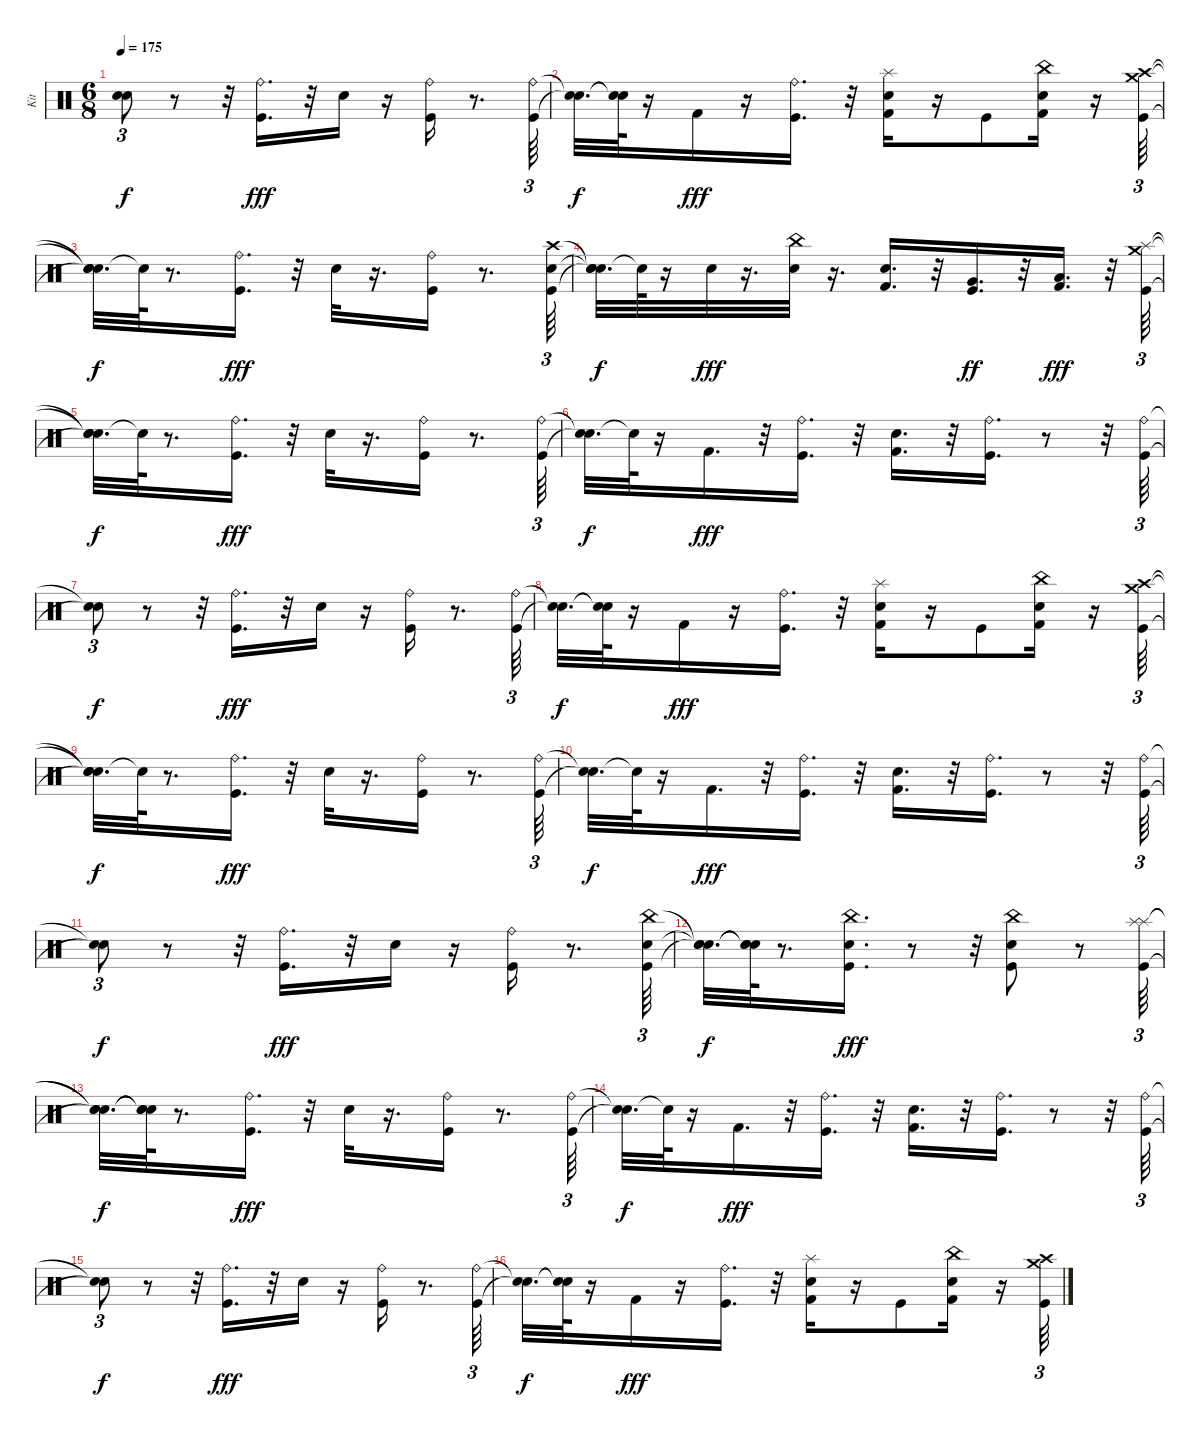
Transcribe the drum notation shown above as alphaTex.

\track ("Kit" "Kit") {instrument percussion}
\staff {score}
\articulation defaults
\ts (6 8)
\tempo 175
\clef neutral
\ks c
("Snare (hit)"{t} "Snare (hit)"{t}).8{tu (3 2) dy f} r.8 r.32 ("Kick (hit)" "Ride (bell)").16{d dy fff} r.32 "Snare (hit) 2".16 r.16 ("Kick (hit)" "Ride (bell)").16 r.8{d} ("Kick (hit)" "Ride (bell)").64{tu (3 2)} |
("Snare (hit)"{t} "Snare (hit)"{t}).32{d dy f} ("Snare (hit)"{t} "Snare (hit)"{t}).64 r.16 "Kick (hit) 2".16{dy fff} r.16 ("Kick (hit)" "Ride (bell)").16{d} r.32 ("Kick (hit) 2" "Snare (hit) 2" "Splash (hit)").16 r.16 "Kick (hit)".8 ("Kick (hit) 2" "Snare (hit) 2" "China (hit)").16 r.16 ("Kick (hit)" "Crash high (hit)" "Crash medium (hit)").64{tu (3 2)} |
("Snare (hit)"{t} "Snare (hit)"{t} "Snare (hit)"{t}).32{d dy f} "Snare (hit)"{t}.64 r.8{d} ("Kick (hit)" "Ride (bell)").16{d dy fff} r.32 "Snare (hit) 2".32 r.16{d} ("Kick (hit)" "Ride (bell)").16 r.8{d} ("Kick (hit)" "Snare (hit) 2" "Crash high (hit)").64{tu (3 2)} |
("Snare (hit)"{t} "Snare (hit)"{t} "Snare (hit)"{t}).32{d dy f} "Snare (hit)"{t}.64 r.16 "Snare (hit) 2".32{dy fff} r.16{d} ("Snare (hit) 2" "China (hit)").32 r.16{d} ("Kick (hit) 2" "Snare (hit) 2").16{d} r.32 ("Kick (hit)" "Very Low Tom (hit)").16{d dy ff} r.32 ("Kick (hit) 2" "Low Floor Tom (hit)").16{d dy fff} r.32 ("Kick (hit)" "Splash (hit)" "Crash medium (hit)").64{tu (3 2)} |
("Snare (hit)"{t} "Snare (hit)"{t} "Snare (hit)"{t}).32{d dy f} "Snare (hit)"{t}.64 r.8{d} ("Kick (hit)" "Ride (bell)").16{d dy fff} r.32 "Snare (hit) 2".32 r.16{d} ("Kick (hit)" "Ride (bell)").16 r.8{d} ("Kick (hit)" "Ride (bell)").64{tu (3 2)} |
("Snare (hit)"{t} "Snare (hit)"{t}).32{d dy f} "Snare (hit)"{t}.64 r.16 "Kick (hit) 2".16{d dy fff} r.32 ("Kick (hit)" "Ride (bell)").16{d} r.32 ("Kick (hit) 2" "Snare (hit) 2").16{d} r.32 ("Kick (hit)" "Ride (bell)").16{d} r.8 r.32 ("Kick (hit)" "Ride (bell)").64{tu (3 2)} |
("Snare (hit)"{t} "Snare (hit)"{t}).8{tu (3 2) dy f} r.8 r.32 ("Kick (hit)" "Ride (bell)").16{d dy fff} r.32 "Snare (hit) 2".16 r.16 ("Kick (hit)" "Ride (bell)").16 r.8{d} ("Kick (hit)" "Ride (bell)").64{tu (3 2)} |
("Snare (hit)"{t} "Snare (hit)"{t}).32{d dy f} ("Snare (hit)"{t} "Snare (hit)"{t}).64 r.16 "Kick (hit) 2".16{dy fff} r.16 ("Kick (hit)" "Ride (bell)").16{d} r.32 ("Kick (hit) 2" "Snare (hit) 2" "Splash (hit)").16 r.16 "Kick (hit)".8 ("Kick (hit) 2" "Snare (hit) 2" "China (hit)").16 r.16 ("Kick (hit)" "Crash high (hit)" "Crash medium (hit)").64{tu (3 2)} |
("Snare (hit)"{t} "Snare (hit)"{t} "Snare (hit)"{t}).32{d dy f} "Snare (hit)"{t}.64 r.8{d} ("Kick (hit)" "Ride (bell)").16{d dy fff} r.32 "Snare (hit) 2".32 r.16{d} ("Kick (hit)" "Ride (bell)").16 r.8{d} ("Kick (hit)" "Ride (bell)").64{tu (3 2)} |
("Snare (hit)"{t} "Snare (hit)"{t}).32{d dy f} "Snare (hit)"{t}.64 r.16 "Kick (hit) 2".16{d dy fff} r.32 ("Kick (hit)" "Ride (bell)").16{d} r.32 ("Kick (hit) 2" "Snare (hit) 2").16{d} r.32 ("Kick (hit)" "Ride (bell)").16{d} r.8 r.32 ("Kick (hit)" "Ride (bell)").64{tu (3 2)} |
("Snare (hit)"{t} "Snare (hit)"{t}).8{tu (3 2) dy f} r.8 r.32 ("Kick (hit)" "Ride (bell)").16{d dy fff} r.32 "Snare (hit) 2".16 r.16 ("Kick (hit)" "Ride (bell)").16 r.8{d} ("Kick (hit)" "Snare (hit) 2" "China (hit)").64{tu (3 2)} |
("Snare (hit)"{t} "Snare (hit)"{t} "Snare (hit)"{t}).32{d dy f} ("Snare (hit)"{t} "Snare (hit)"{t} "Snare (hit)"{t}).64 r.8{d} ("Kick (hit)" "Snare (hit) 2" "China (hit)").16{d dy fff} r.8 r.32 ("Kick (hit)" "Snare (hit) 2" "China (hit)").8 r.8 ("Kick (hit)" "Splash (hit)" "Splash (hit)").64{tu (3 2)} |
("Snare (hit)"{t} "Snare (hit)"{t} "Snare (hit)"{t}).32{d dy f} ("Snare (hit)"{t} "Snare (hit)"{t} "Snare (hit)"{t}).64 r.8{d} ("Kick (hit)" "Ride (bell)").16{d dy fff} r.32 "Snare (hit) 2".32 r.16{d} ("Kick (hit)" "Ride (bell)").16 r.8{d} ("Kick (hit)" "Ride (bell)").64{tu (3 2)} |
("Snare (hit)"{t} "Snare (hit)"{t}).32{d dy f} "Snare (hit)"{t}.64 r.16 "Kick (hit) 2".16{d dy fff} r.32 ("Kick (hit)" "Ride (bell)").16{d} r.32 ("Kick (hit) 2" "Snare (hit) 2").16{d} r.32 ("Kick (hit)" "Ride (bell)").16{d} r.8 r.32 ("Kick (hit)" "Ride (bell)").64{tu (3 2)} |
("Snare (hit)"{t} "Snare (hit)"{t}).8{tu (3 2) dy f} r.8 r.32 ("Kick (hit)" "Ride (bell)").16{d dy fff} r.32 "Snare (hit) 2".16 r.16 ("Kick (hit)" "Ride (bell)").16 r.8{d} ("Kick (hit)" "Ride (bell)").64{tu (3 2)} |
("Snare (hit)"{t} "Snare (hit)"{t}).32{d dy f} ("Snare (hit)"{t} "Snare (hit)"{t}).64 r.16 "Kick (hit) 2".16{dy fff} r.16 ("Kick (hit)" "Ride (bell)").16{d} r.32 ("Kick (hit) 2" "Snare (hit) 2" "Splash (hit)").16 r.16 "Kick (hit)".8 ("Kick (hit) 2" "Snare (hit) 2" "China (hit)").16 r.16 ("Kick (hit)" "Crash high (hit)" "Crash medium (hit)").64{tu (3 2)}
